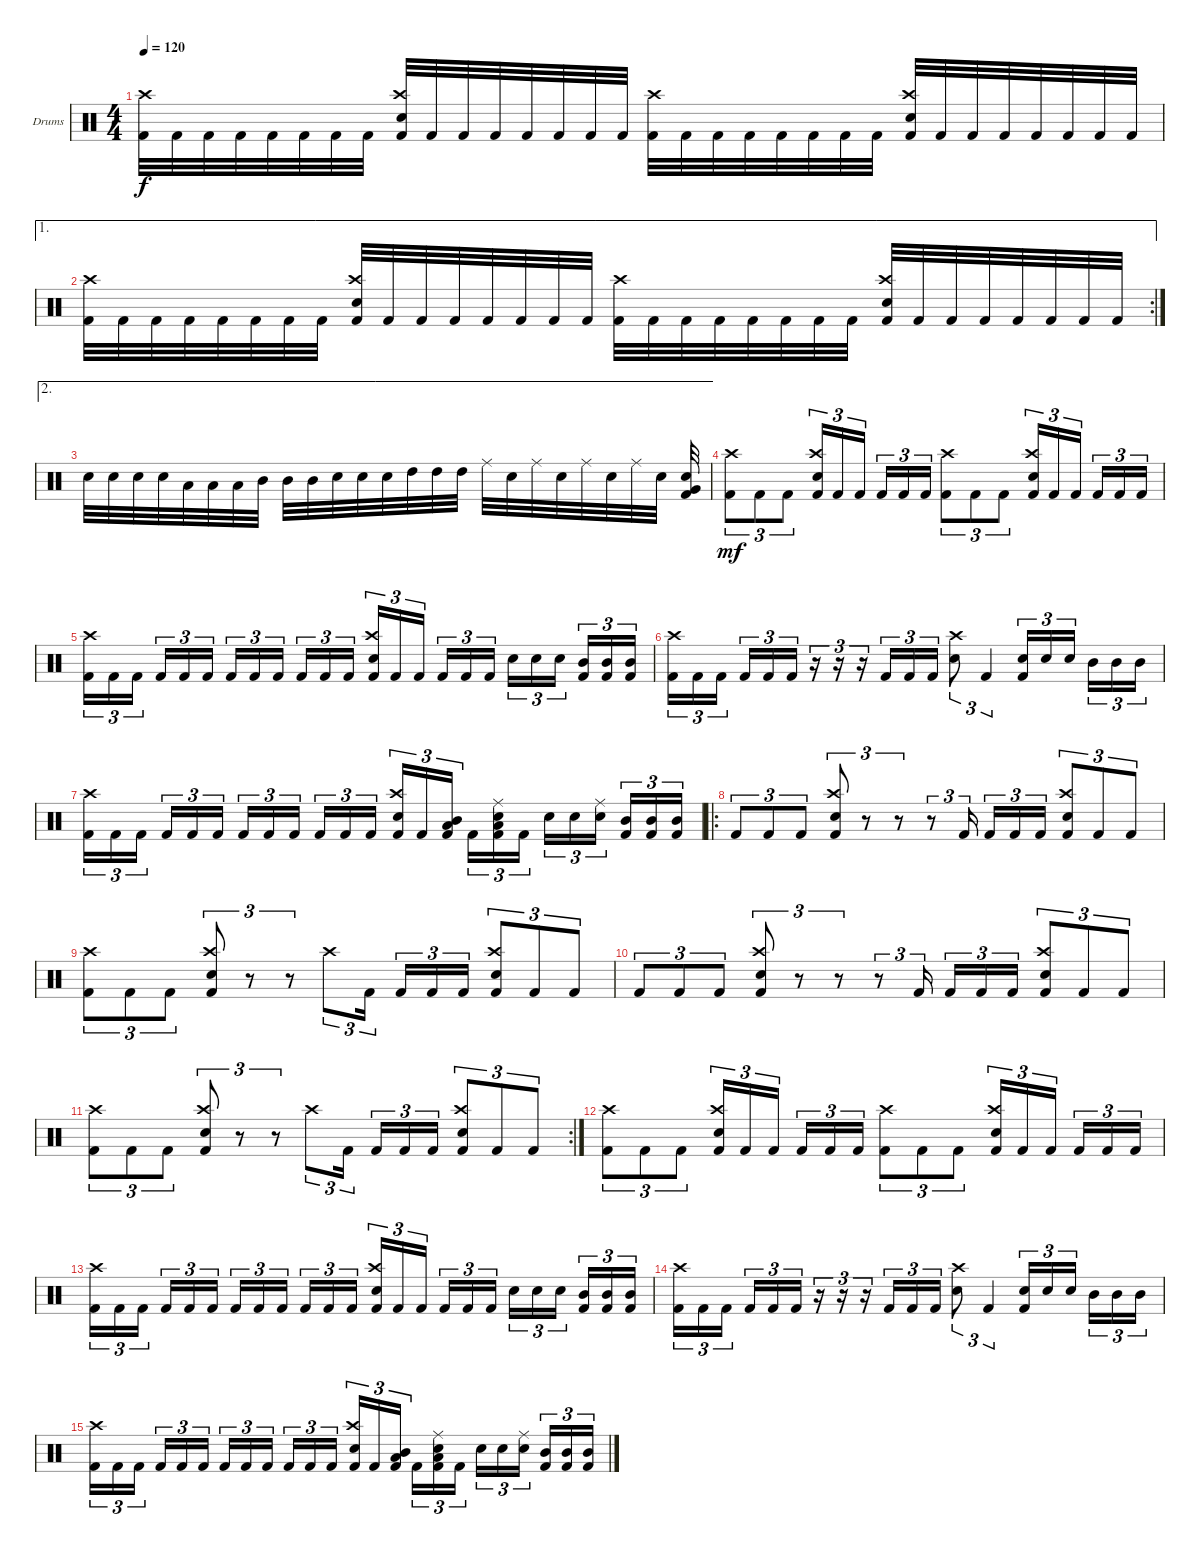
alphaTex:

\defaultSystemsLayout 4
\bracketExtendMode groupsimilarinstruments
\firstSystemTrackNameOrientation horizontal
\otherSystemsTrackNameOrientation horizontal
\track ("Drumkit" "Drums") {instrument percussion}
\staff {score}
\articulation defaults
\ts (4 4)
\tempo 120
\clef neutral
\ks c
("Kick (hit) 2" "Crash high (hit)").32{dy f} "Kick (hit) 2".32 "Kick (hit) 2".32 "Kick (hit) 2".32 "Kick (hit) 2".32 "Kick (hit) 2".32 "Kick (hit) 2".32 "Kick (hit) 2".32 ("Kick (hit) 2" "Crash high (hit)" "Snare (hit) 2").32 "Kick (hit) 2".32 "Kick (hit) 2".32 "Kick (hit) 2".32 "Kick (hit) 2".32 "Kick (hit) 2".32 "Kick (hit) 2".32 "Kick (hit) 2".32 ("Kick (hit) 2" "Crash high (hit)").32 "Kick (hit) 2".32 "Kick (hit) 2".32 "Kick (hit) 2".32 "Kick (hit) 2".32 "Kick (hit) 2".32 "Kick (hit) 2".32 "Kick (hit) 2".32 ("Kick (hit) 2" "Crash high (hit)" "Snare (hit) 2").32 "Kick (hit) 2".32 "Kick (hit) 2".32 "Kick (hit) 2".32 "Kick (hit) 2".32 "Kick (hit) 2".32 "Kick (hit) 2".32 "Kick (hit) 2".32 |
\ae 1
\rc 2
("Kick (hit) 2" "Crash high (hit)").32 "Kick (hit) 2".32 "Kick (hit) 2".32 "Kick (hit) 2".32 "Kick (hit) 2".32 "Kick (hit) 2".32 "Kick (hit) 2".32 "Kick (hit) 2".32 ("Kick (hit) 2" "Crash high (hit)" "Snare (hit) 2").32 "Kick (hit) 2".32 "Kick (hit) 2".32 "Kick (hit) 2".32 "Kick (hit) 2".32 "Kick (hit) 2".32 "Kick (hit) 2".32 "Kick (hit) 2".32 ("Kick (hit) 2" "Crash high (hit)").32 "Kick (hit) 2".32 "Kick (hit) 2".32 "Kick (hit) 2".32 "Kick (hit) 2".32 "Kick (hit) 2".32 "Kick (hit) 2".32 "Kick (hit) 2".32 ("Kick (hit) 2" "Crash high (hit)" "Snare (hit) 2").32 "Kick (hit) 2".32 "Kick (hit) 2".32 "Kick (hit) 2".32 "Kick (hit) 2".32 "Kick (hit) 2".32 "Kick (hit) 2".32 "Kick (hit) 2".32 |
\ae 2 "Snare (hit) 2".32 "Snare (hit) 2".32 "Snare (hit) 2".32 "Snare (hit) 2".32 "Low Tom (hit)".32 "Low Tom (hit)".32 "Low Tom (hit)".32 "Mid Tom (hit)".32 "Mid Tom (hit)".32 "Mid Tom (hit)".32 "Snare (hit) 2".32 "Snare (hit) 2".32 "Snare (hit) 2".32 "High Tom (hit)".32 "High Tom (hit)".32 "High Tom (hit)".32 "Ride (middle)".32 "Snare (hit) 2".32 "Ride (middle)".32 "Snare (hit) 2".32 "Ride (middle)".32 "Snare (hit) 2".32 "Ride (middle)".32 "Snare (hit) 2".32
("Kick (hit) 2" "Very Low Tom (hit)" "Snare (hit) 2").32 |
("Kick (hit) 2" "Crash high (hit)").8{tu (3 2) dy mf} "Kick (hit) 2".8{tu (3 2)} "Kick (hit) 2".8{tu (3 2)} ("Kick (hit) 2" "Crash high (hit)" "Snare (hit) 2").16{tu (3 2)} "Kick (hit) 2".16{tu (3 2)} "Kick (hit) 2".16{tu (3 2)} "Kick (hit) 2".16{tu (3 2)} "Kick (hit) 2".16{tu (3 2)} "Kick (hit) 2".16{tu (3 2)} ("Kick (hit) 2" "Crash high (hit)").8{tu (3 2)} "Kick (hit) 2".8{tu (3 2)} "Kick (hit) 2".8{tu (3 2)} ("Kick (hit) 2" "Crash high (hit)" "Snare (hit) 2").16{tu (3 2)} "Kick (hit) 2".16{tu (3 2)} "Kick (hit) 2".16{tu (3 2)} "Kick (hit) 2".16{tu (3 2)} "Kick (hit) 2".16{tu (3 2)} "Kick (hit) 2".16{tu (3 2)} |
("Kick (hit) 2" "Crash high (hit)").16{tu (3 2)} "Kick (hit) 2".16{tu (3 2)} "Kick (hit) 2".16{tu (3 2)} "Kick (hit) 2".16{tu (3 2)} "Kick (hit) 2".16{tu (3 2)} "Kick (hit) 2".16{tu (3 2)} "Kick (hit) 2".16{tu (3 2)} "Kick (hit) 2".16{tu (3 2)} "Kick (hit) 2".16{tu (3 2)} "Kick (hit) 2".16{tu (3 2)} "Kick (hit) 2".16{tu (3 2)} "Kick (hit) 2".16{tu (3 2)} ("Kick (hit) 2" "Crash high (hit)" "Snare (hit) 2").16{tu (3 2)} "Kick (hit) 2".16{tu (3 2)} "Kick (hit) 2".16{tu (3 2)} "Kick (hit) 2".16{tu (3 2)} "Kick (hit) 2".16{tu (3 2)} "Kick (hit) 2".16{tu (3 2)} "Snare (hit) 2".16{tu (3 2)} "Snare (hit) 2".16{tu (3 2)} "Snare (hit) 2".16{tu (3 2)} ("Kick (hit) 2" "Mid Tom (hit)").16{tu (3 2)} ("Kick (hit) 2" "Mid Tom (hit)").16{tu (3 2)} ("Kick (hit) 2" "Mid Tom (hit)").16{tu (3 2)} |
("Kick (hit) 2" "Crash high (hit)").16{tu (3 2)} "Kick (hit) 2".16{tu (3 2)} "Kick (hit) 2".16{tu (3 2)} "Kick (hit) 2".16{tu (3 2)} "Kick (hit) 2".16{tu (3 2)} "Kick (hit) 2".16{tu (3 2)} r.16{tu (3 2)} r.16{tu (3 2)} r.16{tu (3 2)} "Kick (hit) 2".16{tu (3 2)} "Kick (hit) 2".16{tu (3 2)} "Kick (hit) 2".16{tu (3 2)} ("Snare (hit) 2" "Crash high (hit)").8{tu (3 2)} "Kick (hit) 2".4{tu (3 2)} ("Kick (hit) 2" "Snare (hit) 2").16{tu (3 2)} "Snare (hit) 2".16{tu (3 2)} "Snare (hit) 2".16{tu (3 2)} "Mid Tom (hit)".16{tu (3 2)} "Mid Tom (hit)".16{tu (3 2)} "Mid Tom (hit)".16{tu (3 2)} |
("Kick (hit) 2" "Crash high (hit)").16{tu (3 2)} "Kick (hit) 2".16{tu (3 2)} "Kick (hit) 2".16{tu (3 2)} "Kick (hit) 2".16{tu (3 2)} "Kick (hit) 2".16{tu (3 2)} "Kick (hit) 2".16{tu (3 2)} "Kick (hit) 2".16{tu (3 2)} "Kick (hit) 2".16{tu (3 2)} "Kick (hit) 2".16{tu (3 2)} "Kick (hit) 2".16{tu (3 2)} "Kick (hit) 2".16{tu (3 2)} "Kick (hit) 2".16{tu (3 2)} ("Kick (hit) 2" "Crash high (hit)" "Snare (hit) 2").16{tu (3 2)} "Kick (hit) 2".16{tu (3 2)} ("Kick (hit) 2" "Low Tom (hit)" "Mid Tom (hit)").16{tu (3 2)} "Kick (hit) 2".16{tu (3 2)} ("Kick (hit) 2" "Low Tom (hit)" "Snare (hit) 2" "Ride (middle)").16{tu (3 2)} "Kick (hit) 2".16{tu (3 2)} "Snare (hit) 2".16{tu (3 2)} "Snare (hit) 2".16{tu (3 2)} ("Snare (hit) 2" "Ride (middle)").16{tu (3 2)} ("Kick (hit) 2" "Mid Tom (hit)").16{tu (3 2)} ("Kick (hit) 2" "Mid Tom (hit)").16{tu (3 2)} ("Kick (hit) 2" "Mid Tom (hit)").16{tu (3 2)} |
\ro "Kick (hit) 2".8{tu (3 2)} "Kick (hit) 2".8{tu (3 2)} "Kick (hit) 2".8{tu (3 2)}
("Kick (hit) 2" "Snare (hit) 2" "Crash high (hit)").8{tu (3 2)} r.8{tu (3 2)} r.8{tu (3 2)} r.8{tu (3 2)} "Kick (hit) 2".16{tu (3 2)} "Kick (hit) 2".16{tu (3 2)} "Kick (hit) 2".16{tu (3 2)} "Kick (hit) 2".16{tu (3 2)} ("Kick (hit) 2" "Crash high (hit)" "Snare (hit) 2").8{tu (3 2)} "Kick (hit) 2".8{tu (3 2)} "Kick (hit) 2".8{tu (3 2)} |
("Kick (hit) 2" "Crash high (hit)").8{tu (3 2)} "Kick (hit) 2".8{tu (3 2)} "Kick (hit) 2".8{tu (3 2)} ("Kick (hit) 2" "Snare (hit) 2" "Crash high (hit)").8{tu (3 2)} r.8{tu (3 2)} r.8{tu (3 2)} "Crash high (hit)".8{tu (3 2)} "Kick (hit) 2".16{tu (3 2)} "Kick (hit) 2".16{tu (3 2)} "Kick (hit) 2".16{tu (3 2)} "Kick (hit) 2".16{tu (3 2)} ("Kick (hit) 2" "Crash high (hit)" "Snare (hit) 2").8{tu (3 2)} "Kick (hit) 2".8{tu (3 2)} "Kick (hit) 2".8{tu (3 2)} |
"Kick (hit) 2".8{tu (3 2)} "Kick (hit) 2".8{tu (3 2)} "Kick (hit) 2".8{tu (3 2)} ("Kick (hit) 2" "Snare (hit) 2" "Crash high (hit)").8{tu (3 2)} r.8{tu (3 2)} r.8{tu (3 2)} r.8{tu (3 2)} "Kick (hit) 2".16{tu (3 2)} "Kick (hit) 2".16{tu (3 2)} "Kick (hit) 2".16{tu (3 2)} "Kick (hit) 2".16{tu (3 2)} ("Kick (hit) 2" "Crash high (hit)" "Snare (hit) 2").8{tu (3 2)} "Kick (hit) 2".8{tu (3 2)} "Kick (hit) 2".8{tu (3 2)} |
\rc 2
("Kick (hit) 2" "Crash high (hit)").8{tu (3 2)} "Kick (hit) 2".8{tu (3 2)} "Kick (hit) 2".8{tu (3 2)} ("Kick (hit) 2" "Snare (hit) 2" "Crash high (hit)").8{tu (3 2)} r.8{tu (3 2)} r.8{tu (3 2)} "Crash high (hit)".8{tu (3 2)} "Kick (hit) 2".16{tu (3 2)} "Kick (hit) 2".16{tu (3 2)} "Kick (hit) 2".16{tu (3 2)} "Kick (hit) 2".16{tu (3 2)} ("Kick (hit) 2" "Crash high (hit)" "Snare (hit) 2").8{tu (3 2)} "Kick (hit) 2".8{tu (3 2)} "Kick (hit) 2".8{tu (3 2)} |
("Kick (hit) 2" "Crash high (hit)").8{tu (3 2)} "Kick (hit) 2".8{tu (3 2)} "Kick (hit) 2".8{tu (3 2)} ("Kick (hit) 2" "Crash high (hit)" "Snare (hit) 2").16{tu (3 2)} "Kick (hit) 2".16{tu (3 2)} "Kick (hit) 2".16{tu (3 2)} "Kick (hit) 2".16{tu (3 2)} "Kick (hit) 2".16{tu (3 2)} "Kick (hit) 2".16{tu (3 2)} ("Kick (hit) 2" "Crash high (hit)").8{tu (3 2)} "Kick (hit) 2".8{tu (3 2)} "Kick (hit) 2".8{tu (3 2)} ("Kick (hit) 2" "Crash high (hit)" "Snare (hit) 2").16{tu (3 2)} "Kick (hit) 2".16{tu (3 2)} "Kick (hit) 2".16{tu (3 2)} "Kick (hit) 2".16{tu (3 2)} "Kick (hit) 2".16{tu (3 2)} "Kick (hit) 2".16{tu (3 2)} |
("Kick (hit) 2" "Crash high (hit)").16{tu (3 2)} "Kick (hit) 2".16{tu (3 2)} "Kick (hit) 2".16{tu (3 2)} "Kick (hit) 2".16{tu (3 2)} "Kick (hit) 2".16{tu (3 2)} "Kick (hit) 2".16{tu (3 2)} "Kick (hit) 2".16{tu (3 2)} "Kick (hit) 2".16{tu (3 2)} "Kick (hit) 2".16{tu (3 2)} "Kick (hit) 2".16{tu (3 2)} "Kick (hit) 2".16{tu (3 2)} "Kick (hit) 2".16{tu (3 2)} ("Kick (hit) 2" "Crash high (hit)" "Snare (hit) 2").16{tu (3 2)} "Kick (hit) 2".16{tu (3 2)} "Kick (hit) 2".16{tu (3 2)} "Kick (hit) 2".16{tu (3 2)} "Kick (hit) 2".16{tu (3 2)} "Kick (hit) 2".16{tu (3 2)} "Snare (hit) 2".16{tu (3 2)} "Snare (hit) 2".16{tu (3 2)} "Snare (hit) 2".16{tu (3 2)} ("Kick (hit) 2" "Mid Tom (hit)").16{tu (3 2)} ("Kick (hit) 2" "Mid Tom (hit)").16{tu (3 2)} ("Kick (hit) 2" "Mid Tom (hit)").16{tu (3 2)} |
("Kick (hit) 2" "Crash high (hit)").16{tu (3 2)} "Kick (hit) 2".16{tu (3 2)} "Kick (hit) 2".16{tu (3 2)} "Kick (hit) 2".16{tu (3 2)} "Kick (hit) 2".16{tu (3 2)} "Kick (hit) 2".16{tu (3 2)} r.16{tu (3 2)} r.16{tu (3 2)} r.16{tu (3 2)} "Kick (hit) 2".16{tu (3 2)} "Kick (hit) 2".16{tu (3 2)} "Kick (hit) 2".16{tu (3 2)} ("Snare (hit) 2" "Crash high (hit)").8{tu (3 2)} "Kick (hit) 2".4{tu (3 2)} ("Kick (hit) 2" "Snare (hit) 2").16{tu (3 2)} "Snare (hit) 2".16{tu (3 2)} "Snare (hit) 2".16{tu (3 2)} "Mid Tom (hit)".16{tu (3 2)} "Mid Tom (hit)".16{tu (3 2)} "Mid Tom (hit)".16{tu (3 2)} |
("Kick (hit) 2" "Crash high (hit)").16{tu (3 2)} "Kick (hit) 2".16{tu (3 2)} "Kick (hit) 2".16{tu (3 2)} "Kick (hit) 2".16{tu (3 2)} "Kick (hit) 2".16{tu (3 2)} "Kick (hit) 2".16{tu (3 2)} "Kick (hit) 2".16{tu (3 2)} "Kick (hit) 2".16{tu (3 2)} "Kick (hit) 2".16{tu (3 2)} "Kick (hit) 2".16{tu (3 2)} "Kick (hit) 2".16{tu (3 2)} "Kick (hit) 2".16{tu (3 2)} ("Kick (hit) 2" "Crash high (hit)" "Snare (hit) 2").16{tu (3 2)} "Kick (hit) 2".16{tu (3 2)} ("Kick (hit) 2" "Low Tom (hit)" "Mid Tom (hit)").16{tu (3 2)} "Kick (hit) 2".16{tu (3 2)} ("Kick (hit) 2" "Low Tom (hit)" "Snare (hit) 2" "Ride (middle)").16{tu (3 2)} "Kick (hit) 2".16{tu (3 2)} "Snare (hit) 2".16{tu (3 2)} "Snare (hit) 2".16{tu (3 2)} ("Snare (hit) 2" "Ride (middle)").16{tu (3 2)} ("Kick (hit) 2" "Mid Tom (hit)").16{tu (3 2)} ("Kick (hit) 2" "Mid Tom (hit)").16{tu (3 2)} ("Kick (hit) 2" "Mid Tom (hit)").16{tu (3 2)}
